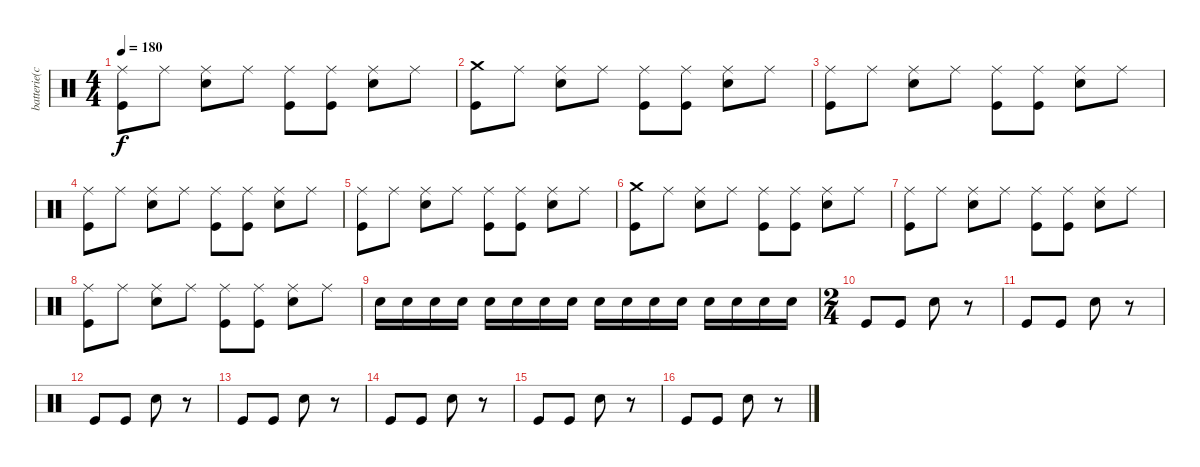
\track ("batterie(chip)" "batterie(c") {instrument percussion}
\staff {score}
\articulation defaults
\ts (4 4)
\tempo 180
\clef neutral
\ks c
("Ride (middle)" "Kick (hit)").8{dy f} "Ride (middle)".8 ("Ride (middle)" "Snare (hit) 2").8 "Ride (middle)".8 ("Ride (middle)" "Kick (hit)").8 ("Ride (middle)" "Kick (hit)").8 ("Ride (middle)" "Snare (hit) 2").8 "Ride (middle)".8 |
("Crash medium (hit)" "Kick (hit)").8 "Ride (middle)".8 ("Ride (middle)" "Snare (hit) 2").8 "Ride (middle)".8 ("Ride (middle)" "Kick (hit)").8 ("Ride (middle)" "Kick (hit)").8 ("Ride (middle)" "Snare (hit) 2").8 "Ride (middle)".8 |
("Ride (middle)" "Kick (hit)").8 "Ride (middle)".8 ("Ride (middle)" "Snare (hit) 2").8 "Ride (middle)".8 ("Ride (middle)" "Kick (hit)").8 ("Ride (middle)" "Kick (hit)").8 ("Ride (middle)" "Snare (hit) 2").8 "Ride (middle)".8 |
("Ride (middle)" "Kick (hit)").8 "Ride (middle)".8 ("Ride (middle)" "Snare (hit) 2").8 "Ride (middle)".8 ("Ride (middle)" "Kick (hit)").8 ("Ride (middle)" "Kick (hit)").8 ("Ride (middle)" "Snare (hit) 2").8 "Ride (middle)".8 |
("Ride (middle)" "Kick (hit)").8 "Ride (middle)".8 ("Ride (middle)" "Snare (hit) 2").8 "Ride (middle)".8 ("Ride (middle)" "Kick (hit)").8 ("Ride (middle)" "Kick (hit)").8 ("Ride (middle)" "Snare (hit) 2").8 "Ride (middle)".8 |
("Crash medium (hit)" "Kick (hit)").8 "Ride (middle)".8 ("Ride (middle)" "Snare (hit) 2").8 "Ride (middle)".8 ("Ride (middle)" "Kick (hit)").8 ("Ride (middle)" "Kick (hit)").8 ("Ride (middle)" "Snare (hit) 2").8 "Ride (middle)".8 |
("Ride (middle)" "Kick (hit)").8 "Ride (middle)".8 ("Ride (middle)" "Snare (hit) 2").8 "Ride (middle)".8 ("Ride (middle)" "Kick (hit)").8 ("Ride (middle)" "Kick (hit)").8 ("Ride (middle)" "Snare (hit) 2").8 "Ride (middle)".8 |
("Ride (middle)" "Kick (hit)").8 "Ride (middle)".8 ("Ride (middle)" "Snare (hit) 2").8 "Ride (middle)".8 ("Ride (middle)" "Kick (hit)").8 ("Ride (middle)" "Kick (hit)").8 ("Ride (middle)" "Snare (hit) 2").8 "Ride (middle)".8 |
"Snare (hit) 2".16 "Snare (hit) 2".16 "Snare (hit) 2".16 "Snare (hit) 2".16 "Snare (hit) 2".16 "Snare (hit) 2".16 "Snare (hit) 2".16 "Snare (hit) 2".16 "Snare (hit) 2".16 "Snare (hit) 2".16 "Snare (hit) 2".16 "Snare (hit) 2".16 "Snare (hit) 2".16 "Snare (hit) 2".16 "Snare (hit) 2".16 "Snare (hit) 2".16 |
\ts (2 4)
"Kick (hit)".8 "Kick (hit)".8 "Snare (hit) 2".8 r.8 |
"Kick (hit)".8 "Kick (hit)".8 "Snare (hit) 2".8 r.8 |
"Kick (hit)".8 "Kick (hit)".8 "Snare (hit) 2".8 r.8 |
"Kick (hit)".8 "Kick (hit)".8 "Snare (hit) 2".8 r.8 |
"Kick (hit)".8 "Kick (hit)".8 "Snare (hit) 2".8 r.8 |
"Kick (hit)".8 "Kick (hit)".8 "Snare (hit) 2".8 r.8 |
"Kick (hit)".8 "Kick (hit)".8 "Snare (hit) 2".8 r.8
